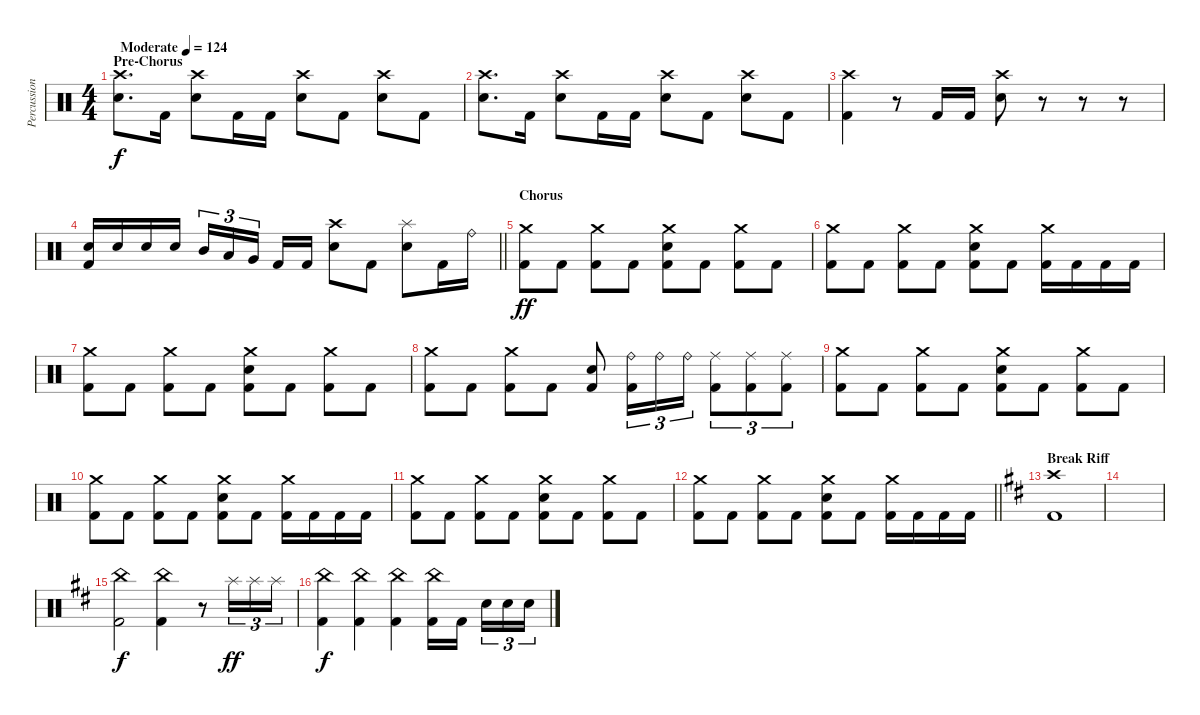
\track ("Percussion" "Percussion") {instrument percussion}
\staff {score}
\articulation defaults
\ts (4 4)
\section ("" "Pre-Chorus")
\tempo (124 "Moderate")
\clef neutral
\ks c
("Crash high (hit)" "Electric Snare (hit)").8{d dy f} "Kick (hit) 2".16 ("Crash high (hit)" "Electric Snare (hit)").8 "Kick (hit) 2".16 "Kick (hit) 2".16 ("Crash high (hit)" "Electric Snare (hit)").8 "Kick (hit) 2".8 ("Crash high (hit)" "Electric Snare (hit)").8 "Kick (hit) 2".8 |
("Crash high (hit)" "Electric Snare (hit)").8{d} "Kick (hit) 2".16 ("Crash high (hit)" "Electric Snare (hit)").8 "Kick (hit) 2".16 "Kick (hit) 2".16 ("Crash high (hit)" "Electric Snare (hit)").8 "Kick (hit) 2".8 ("Crash high (hit)" "Electric Snare (hit)").8 "Kick (hit) 2".8 |
("Crash high (hit)" "Kick (hit) 2").4 r.8 "Kick (hit) 2".16 "Kick (hit) 2".16 ("Crash high (hit)" "Electric Snare (hit)").8 r.8 r.8 r.8 |
\barLineRight lightlight
("Electric Snare (hit)" "Kick (hit) 2").16 "Electric Snare (hit)".16 "Electric Snare (hit)".16 "Electric Snare (hit)".16 "Mid Tom (hit)".16{tu (3 2)} "Low Tom (hit)".16{tu (3 2)} "Very Low Tom (hit)".16{tu (3 2) beam splitsecondary} "Kick (hit) 2".16 "Kick (hit) 2".16 ("Crash high (hit)" "Electric Snare (hit)").8 "Kick (hit) 2".8 ("Splash (hit)" "Electric Snare (hit)").8 "Kick (hit) 2".16 "Ride (bell)".16 |
\section ("" "Chorus")
("Crash medium (hit)" "Kick (hit) 2").8{dy ff} "Kick (hit) 2".8 ("Crash medium (hit)" "Kick (hit) 2").8 "Kick (hit) 2".8 ("Crash medium (hit)" "Electric Snare (hit)" "Kick (hit) 2").8 "Kick (hit) 2".8 ("Crash medium (hit)" "Kick (hit) 2").8 "Kick (hit) 2".8 |
("Crash medium (hit)" "Kick (hit) 2").8 "Kick (hit) 2".8 ("Crash medium (hit)" "Kick (hit) 2").8 "Kick (hit) 2".8 ("Crash medium (hit)" "Electric Snare (hit)" "Kick (hit) 2").8 "Kick (hit) 2".8 ("Crash medium (hit)" "Kick (hit) 2").16 "Kick (hit) 2".16 "Kick (hit) 2".16 "Kick (hit) 2".16 |
("Crash medium (hit)" "Kick (hit) 2").8 "Kick (hit) 2".8 ("Crash medium (hit)" "Kick (hit) 2").8 "Kick (hit) 2".8 ("Crash medium (hit)" "Electric Snare (hit)" "Kick (hit) 2").8 "Kick (hit) 2".8 ("Crash medium (hit)" "Kick (hit) 2").8 "Kick (hit) 2".8 |
("Crash medium (hit)" "Kick (hit) 2").8 "Kick (hit) 2".8 ("Crash medium (hit)" "Kick (hit) 2").8 "Kick (hit) 2".8 ("Electric Snare (hit)" "Kick (hit) 2").8 ("Ride (bell)" "Kick (hit) 2").16{tu (3 2)} "Ride (bell)".16{tu (3 2)} "Ride (bell)".16{tu (3 2)} ("Ride (middle)" "Kick (hit) 2").8{tu (3 2)} ("Ride (middle)" "Kick (hit) 2").8{tu (3 2)} ("Ride (middle)" "Kick (hit) 2").8{tu (3 2)} |
("Crash medium (hit)" "Kick (hit) 2").8 "Kick (hit) 2".8 ("Crash medium (hit)" "Kick (hit) 2").8 "Kick (hit) 2".8 ("Crash medium (hit)" "Electric Snare (hit)" "Kick (hit) 2").8 "Kick (hit) 2".8 ("Crash medium (hit)" "Kick (hit) 2").8 "Kick (hit) 2".8 |
("Crash medium (hit)" "Kick (hit) 2").8 "Kick (hit) 2".8 ("Crash medium (hit)" "Kick (hit) 2").8 "Kick (hit) 2".8 ("Crash medium (hit)" "Electric Snare (hit)" "Kick (hit) 2").8 "Kick (hit) 2".8 ("Crash medium (hit)" "Kick (hit) 2").16 "Kick (hit) 2".16 "Kick (hit) 2".16 "Kick (hit) 2".16 |
("Crash medium (hit)" "Kick (hit) 2").8 "Kick (hit) 2".8 ("Crash medium (hit)" "Kick (hit) 2").8 "Kick (hit) 2".8 ("Crash medium (hit)" "Electric Snare (hit)" "Kick (hit) 2").8 "Kick (hit) 2".8 ("Crash medium (hit)" "Kick (hit) 2").8 "Kick (hit) 2".8 |
\barLineRight lightlight
("Crash medium (hit)" "Kick (hit) 2").8 "Kick (hit) 2".8 ("Crash medium (hit)" "Kick (hit) 2").8 "Kick (hit) 2".8 ("Crash medium (hit)" "Electric Snare (hit)" "Kick (hit) 2").8 "Kick (hit) 2".8 ("Crash medium (hit)" "Kick (hit) 2").16 "Kick (hit) 2".16 "Kick (hit) 2".16 "Kick (hit) 2".16 |
\section ("" "Break Riff")
\ks bminor
("Crash high (hit)" "Kick (hit) 2").1 |
|
("China (hit)" "Kick (hit) 2").2{dy f} ("China (hit)" "Kick (hit) 2").4 r.8 "Splash (hit)".16{tu (3 2) dy ff} "Splash (hit)".16{tu (3 2)} "Splash (hit)".16{tu (3 2)} |
("China (hit)" "Kick (hit) 2").4{dy f} ("China (hit)" "Kick (hit) 2").4 ("China (hit)" "Kick (hit) 2").4 ("China (hit)" "Kick (hit) 2").16 "Kick (hit) 2".16{beam splitsecondary} "Electric Snare (hit)".16{tu (3 2)} "Electric Snare (hit)".16{tu (3 2)} "Electric Snare (hit)".16{tu (3 2)}
